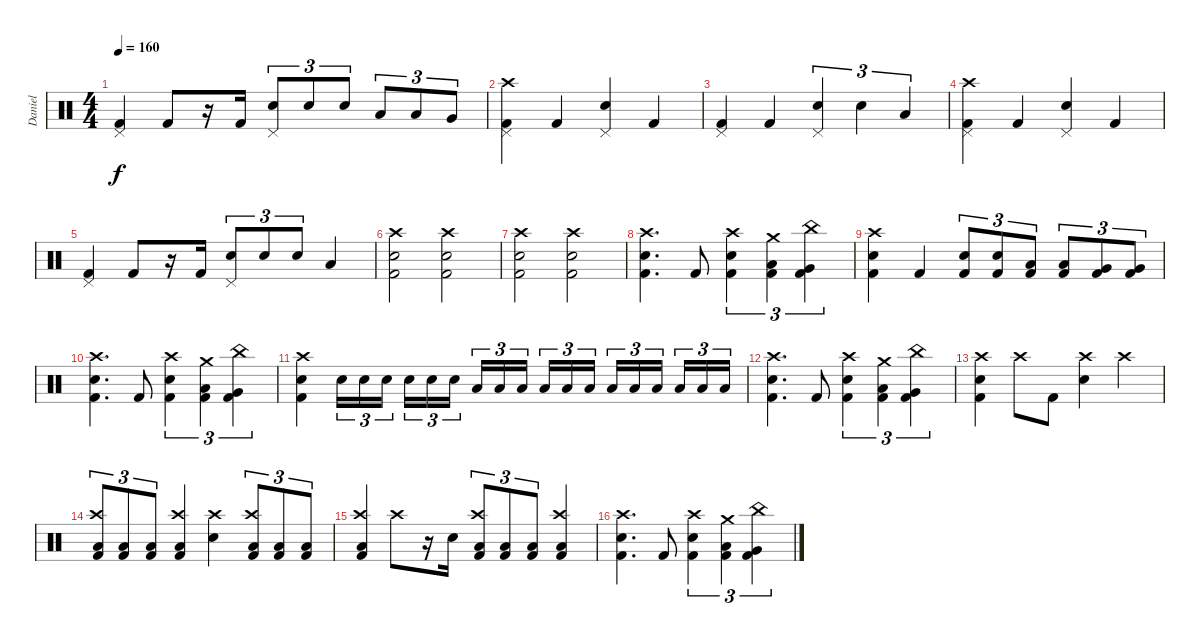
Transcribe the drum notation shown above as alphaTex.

\track ("Daniel" "Daniel") {instrument percussion}
\staff {score}
\articulation defaults
\ts (4 4)
\tempo 160
\clef neutral
\ks c
("Pedal Hi-Hat (hit)" "Kick (hit) 2").4{dy f} "Kick (hit) 2".8 r.16 "Kick (hit) 2".16 ("Electric Snare (hit)" "Pedal Hi-Hat (hit)").8{tu (3 2)} "Electric Snare (hit)".8{tu (3 2)} "Electric Snare (hit)".8{tu (3 2)} "Low Tom (hit)".8{tu (3 2)} "Low Tom (hit)".8{tu (3 2)} "Very Low Tom (hit)".8{tu (3 2)} |
("Crash high (hit)" "Pedal Hi-Hat (hit)" "Kick (hit) 2").4 "Kick (hit) 2".4 ("Electric Snare (hit)" "Pedal Hi-Hat (hit)").4 "Kick (hit) 2".4 |
("Pedal Hi-Hat (hit)" "Kick (hit) 2").4 "Kick (hit) 2".4 ("Electric Snare (hit)" "Pedal Hi-Hat (hit)").4{tu (3 2)} "Electric Snare (hit)".4{tu (3 2)} "Low Tom (hit)".4{tu (3 2)} |
("Crash high (hit)" "Pedal Hi-Hat (hit)" "Kick (hit) 2").4 "Kick (hit) 2".4 ("Electric Snare (hit)" "Pedal Hi-Hat (hit)").4 "Kick (hit) 2".4 |
("Pedal Hi-Hat (hit)" "Kick (hit) 2").4 "Kick (hit) 2".8 r.16 "Kick (hit) 2".16 ("Electric Snare (hit)" "Pedal Hi-Hat (hit)").8{tu (3 2)} "Electric Snare (hit)".8{tu (3 2)} "Electric Snare (hit)".8{tu (3 2)} "Low Tom (hit)".4 |
("Crash high (hit)" "Electric Snare (hit)" "Kick (hit) 2").2 ("Crash high (hit)" "Electric Snare (hit)" "Kick (hit) 2").2 |
("Crash high (hit)" "Electric Snare (hit)" "Kick (hit) 2").2 ("Crash high (hit)" "Electric Snare (hit)" "Kick (hit) 2").2 |
("Crash high (hit)" "Electric Snare (hit)" "Kick (hit) 2").4{d} "Kick (hit) 2".8 ("Crash high (hit)" "Electric Snare (hit)" "Kick (hit) 2").4{tu (3 2)} ("Crash medium (hit)" "Low Tom (hit)" "Kick (hit) 2").4{tu (3 2)} ("China (hit)" "Very Low Tom (hit)" "Kick (hit) 2").4{tu (3 2)} |
("Crash high (hit)" "Electric Snare (hit)" "Kick (hit) 2").4 "Kick (hit) 2".4 ("Electric Snare (hit)" "Kick (hit) 2").8{tu (3 2)} ("Electric Snare (hit)" "Kick (hit) 2").8{tu (3 2)} ("Low Tom (hit)" "Kick (hit) 2").8{tu (3 2)} ("Low Tom (hit)" "Kick (hit) 2").8{tu (3 2)} ("Very Low Tom (hit)" "Kick (hit) 2").8{tu (3 2)} ("Very Low Tom (hit)" "Kick (hit) 2").8{tu (3 2)} |
("Crash high (hit)" "Electric Snare (hit)" "Kick (hit) 2").4{d} "Kick (hit) 2".8 ("Crash high (hit)" "Electric Snare (hit)" "Kick (hit) 2").4{tu (3 2)} ("Crash medium (hit)" "Low Tom (hit)" "Kick (hit) 2").4{tu (3 2)} ("China (hit)" "Very Low Tom (hit)" "Kick (hit) 2").4{tu (3 2)} |
("Crash high (hit)" "Electric Snare (hit)" "Kick (hit) 2").4 "Electric Snare (hit)".16{tu (3 2)} "Electric Snare (hit)".16{tu (3 2)} "Electric Snare (hit)".16{tu (3 2) beam splitsecondary} "Electric Snare (hit)".16{tu (3 2)} "Electric Snare (hit)".16{tu (3 2)} "Electric Snare (hit)".16{tu (3 2)} "Low Tom (hit)".16{tu (3 2)} "Low Tom (hit)".16{tu (3 2)} "Low Tom (hit)".16{tu (3 2) beam splitsecondary} "Low Tom (hit)".16{tu (3 2)} "Low Tom (hit)".16{tu (3 2)} "Low Tom (hit)".16{tu (3 2)} "Low Floor Tom (hit)".16{tu (3 2)} "Low Floor Tom (hit)".16{tu (3 2)} "Low Floor Tom (hit)".16{tu (3 2) beam splitsecondary} "Low Floor Tom (hit)".16{tu (3 2)} "Low Floor Tom (hit)".16{tu (3 2)} "Low Floor Tom (hit)".16{tu (3 2)} |
("Crash high (hit)" "Electric Snare (hit)" "Kick (hit) 2").4{d} "Kick (hit) 2".8 ("Crash high (hit)" "Electric Snare (hit)" "Kick (hit) 2").4{tu (3 2)} ("Crash medium (hit)" "Low Tom (hit)" "Kick (hit) 2").4{tu (3 2)} ("China (hit)" "Very Low Tom (hit)" "Kick (hit) 2").4{tu (3 2)} |
("Crash high (hit)" "Electric Snare (hit)" "Kick (hit) 2").4 "Crash high (hit)".8 "Kick (hit) 2".8 ("Crash high (hit)" "Electric Snare (hit)").4 "Crash high (hit)".4 |
("Crash high (hit)" "Low Floor Tom (hit)" "Kick (hit) 2").8{tu (3 2)} ("Low Floor Tom (hit)" "Kick (hit) 2").8{tu (3 2)} ("Low Floor Tom (hit)" "Kick (hit) 2").8{tu (3 2)} ("Crash high (hit)" "Low Floor Tom (hit)" "Kick (hit) 2").4 ("Crash high (hit)" "Electric Snare (hit)").4 ("Crash high (hit)" "Low Floor Tom (hit)" "Kick (hit) 2").8{tu (3 2)} ("Low Floor Tom (hit)" "Kick (hit) 2").8{tu (3 2)} ("Low Floor Tom (hit)" "Kick (hit) 2").8{tu (3 2)} |
("Crash high (hit)" "Low Floor Tom (hit)" "Kick (hit) 2").4 "Crash high (hit)".8 r.16 "Electric Snare (hit)".16 ("Crash high (hit)" "Low Floor Tom (hit)" "Kick (hit) 2").8{tu (3 2)} ("Low Floor Tom (hit)" "Kick (hit) 2").8{tu (3 2)} ("Low Floor Tom (hit)" "Kick (hit) 2").8{tu (3 2)} ("Crash high (hit)" "Low Floor Tom (hit)" "Kick (hit) 2").4 |
("Crash high (hit)" "Electric Snare (hit)" "Kick (hit) 2").4{d} "Kick (hit) 2".8 ("Crash high (hit)" "Electric Snare (hit)" "Kick (hit) 2").4{tu (3 2)} ("Crash medium (hit)" "Low Tom (hit)" "Kick (hit) 2").4{tu (3 2)} ("China (hit)" "Very Low Tom (hit)" "Kick (hit) 2").4{tu (3 2)}
